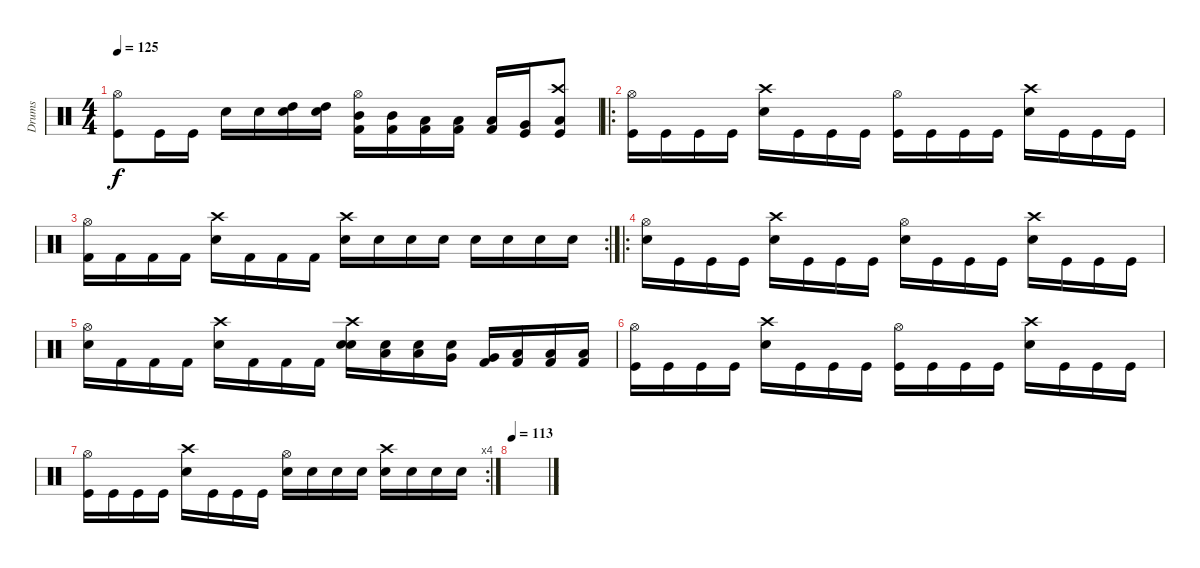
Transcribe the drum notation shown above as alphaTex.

\track ("Drums" "Drums") {instrument percussion}
\staff {score}
\articulation defaults
\ts (4 4)
\tempo 125
\clef neutral
\ks c
("Hi-Hat (open)" "Kick (hit)").8{dy f} "Kick (hit)".16 "Kick (hit)".16 "Electric Snare (hit)".16 "Electric Snare (hit)".16 ("High Tom (hit)" "Snare (hit) 2").16 ("High Tom (hit)" "Snare (hit) 2").16 ("Hi-Hat (open)" "Mid Tom (hit)" "Kick (hit) 2").16 ("Mid Tom (hit)" "Kick (hit) 2").16 ("Low Tom (hit)" "Kick (hit) 2").16 ("Low Tom (hit)" "Kick (hit) 2").16 ("Low Tom (hit)" "Kick (hit) 2").16 ("Very Low Tom (hit)" "Kick (hit)").16 ("Crash high (hit)" "Low Floor Tom (hit)" "Kick (hit)").8 |
\ro
("Hi-Hat (open)" "Kick (hit)").16 "Kick (hit)".16 "Kick (hit)".16 "Kick (hit)".16 ("Crash high (hit)" "Electric Snare (hit)").16 "Kick (hit)".16 "Kick (hit)".16 "Kick (hit)".16 ("Hi-Hat (open)" "Kick (hit)").16 "Kick (hit)".16 "Kick (hit)".16 "Kick (hit)".16 ("Crash high (hit)" "Electric Snare (hit)").16 "Kick (hit)".16 "Kick (hit)".16 "Kick (hit)".16 |
\rc 2
("Hi-Hat (open)" "Kick (hit) 2").16 "Kick (hit) 2".16 "Kick (hit) 2".16 "Kick (hit) 2".16 ("Crash high (hit)" "Electric Snare (hit)").16 "Kick (hit) 2".16 "Kick (hit) 2".16 "Kick (hit) 2".16 ("Crash high (hit)" "Snare (hit) 2").16 "Snare (hit) 2".16 "Snare (hit) 2".16 "Snare (hit) 2".16 "Electric Snare (hit)".16 "Electric Snare (hit)".16 "Electric Snare (hit)".16 "Electric Snare (hit)".16 |
\ro
("Hi-Hat (open)" "Electric Snare (hit)").16 "Kick (hit)".16 "Kick (hit)".16 "Kick (hit)".16 ("Crash high (hit)" "Electric Snare (hit)").16 "Kick (hit)".16 "Kick (hit)".16 "Kick (hit)".16 ("Hi-Hat (open)" "Electric Snare (hit)").16 "Kick (hit)".16 "Kick (hit)".16 "Kick (hit)".16 ("Crash high (hit)" "Electric Snare (hit)").16 "Kick (hit)".16 "Kick (hit)".16 "Kick (hit)".16 |
("Hi-Hat (open)" "Electric Snare (hit)").16 "Kick (hit) 2".16 "Kick (hit) 2".16 "Kick (hit) 2".16 ("Crash high (hit)" "Electric Snare (hit)").16 "Kick (hit) 2".16 "Kick (hit) 2".16 "Kick (hit) 2".16 ("Crash high (hit)" "Electric Snare (hit)" "Snare (hit) 2").16 ("Low Tom (hit)" "Snare (hit) 2").16 ("Low Tom (hit)" "Snare (hit) 2").16 ("Very Low Tom (hit)" "Snare (hit) 2").16 ("Very Low Tom (hit)" "Kick (hit) 2").16 ("Low Floor Tom (hit)" "Kick (hit) 2").16 ("Low Floor Tom (hit)" "Kick (hit) 2").16 ("Low Floor Tom (hit)" "Kick (hit) 2").16 |
("Hi-Hat (open)" "Kick (hit)").16 "Kick (hit)".16 "Kick (hit)".16 "Kick (hit)".16 ("Crash high (hit)" "Electric Snare (hit)").16 "Kick (hit)".16 "Kick (hit)".16 "Kick (hit)".16 ("Hi-Hat (open)" "Kick (hit)").16 "Kick (hit)".16 "Kick (hit)".16 "Kick (hit)".16 ("Crash high (hit)" "Electric Snare (hit)").16 "Kick (hit)".16 "Kick (hit)".16 "Kick (hit)".16 |
\rc 4
("Hi-Hat (open)" "Kick (hit)").16 "Kick (hit)".16 "Kick (hit)".16 "Kick (hit)".16 ("Crash high (hit)" "Electric Snare (hit)").16 "Kick (hit)".16 "Kick (hit)".16 "Kick (hit)".16 ("Hi-Hat (open)" "Snare (hit) 2").16 "Snare (hit) 2".16 "Snare (hit) 2".16 "Snare (hit) 2".16 ("Crash high (hit)" "Electric Snare (hit)").16 "Electric Snare (hit)".16 "Electric Snare (hit)".16 "Electric Snare (hit)".16 |
\tempo 113
